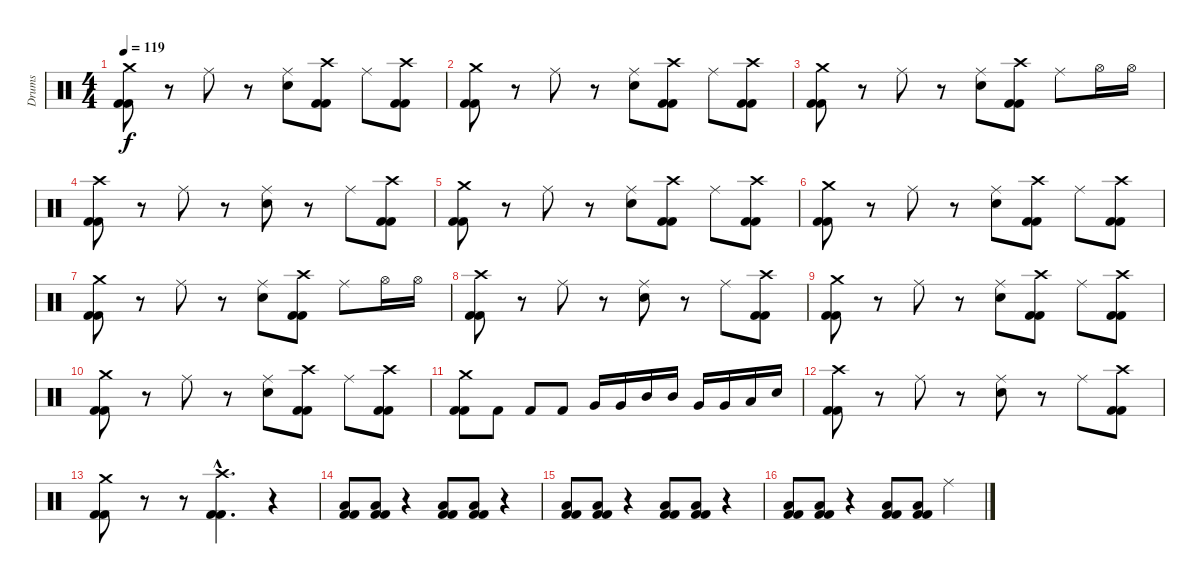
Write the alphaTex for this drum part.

\track ("Drums" "Drums") {instrument percussion}
\staff {score}
\articulation defaults
\ts (4 4)
\tempo 119
\clef neutral
\ks c
("Crash medium (hit)" "Kick (hit) 2" "Kick (hit) 2").8{dy f} r.8 "Ride (middle)".8 r.8 ("Ride (middle)" "Electric Snare (hit)").8 ("Crash high (hit)" "Kick (hit) 2" "Kick (hit) 2").8 "Ride (middle)".8 ("Crash high (hit)" "Kick (hit) 2" "Kick (hit) 2").8 |
("Crash medium (hit)" "Kick (hit) 2" "Kick (hit) 2").8 r.8 "Ride (middle)".8 r.8 ("Ride (middle)" "Electric Snare (hit)").8 ("Crash high (hit)" "Kick (hit) 2" "Kick (hit) 2").8 "Ride (middle)".8 ("Crash high (hit)" "Kick (hit) 2" "Kick (hit) 2").8 |
("Crash medium (hit)" "Kick (hit) 2" "Kick (hit) 2").8 r.8 "Ride (middle)".8 r.8 ("Ride (middle)" "Electric Snare (hit)").8 ("Crash high (hit)" "Kick (hit) 2" "Kick (hit) 2").8 "Ride (middle)".8 "Hi-Hat (open)".16 "Hi-Hat (open)".16 |
("Crash high (hit)" "Kick (hit) 2" "Kick (hit) 2").8 r.8 "Ride (middle)".8 r.8 ("Ride (middle)" "Electric Snare (hit)").8 r.8 "Ride (middle)".8 ("Crash high (hit)" "Kick (hit) 2" "Kick (hit) 2").8 |
("Crash medium (hit)" "Kick (hit) 2" "Kick (hit) 2").8 r.8 "Ride (middle)".8 r.8 ("Ride (middle)" "Electric Snare (hit)").8 ("Crash high (hit)" "Kick (hit) 2" "Kick (hit) 2").8 "Ride (middle)".8 ("Crash high (hit)" "Kick (hit) 2" "Kick (hit) 2").8 |
("Crash medium (hit)" "Kick (hit) 2" "Kick (hit) 2").8 r.8 "Ride (middle)".8 r.8 ("Ride (middle)" "Electric Snare (hit)").8 ("Crash high (hit)" "Kick (hit) 2" "Kick (hit) 2").8 "Ride (middle)".8 ("Crash high (hit)" "Kick (hit) 2" "Kick (hit) 2").8 |
("Crash medium (hit)" "Kick (hit) 2" "Kick (hit) 2").8 r.8 "Ride (middle)".8 r.8 ("Ride (middle)" "Electric Snare (hit)").8 ("Crash high (hit)" "Kick (hit) 2" "Kick (hit) 2").8 "Ride (middle)".8 "Hi-Hat (open)".16 "Hi-Hat (open)".16 |
("Crash high (hit)" "Kick (hit) 2" "Kick (hit) 2").8 r.8 "Ride (middle)".8 r.8 ("Ride (middle)" "Electric Snare (hit)").8 r.8 "Ride (middle)".8 ("Crash high (hit)" "Kick (hit) 2" "Kick (hit) 2").8 |
("Crash medium (hit)" "Kick (hit) 2" "Kick (hit) 2").8 r.8 "Ride (middle)".8 r.8 ("Ride (middle)" "Electric Snare (hit)").8 ("Crash high (hit)" "Kick (hit) 2" "Kick (hit) 2").8 "Ride (middle)".8 ("Crash high (hit)" "Kick (hit) 2" "Kick (hit) 2").8 |
("Crash medium (hit)" "Kick (hit) 2" "Kick (hit) 2").8 r.8 "Ride (middle)".8 r.8 ("Ride (middle)" "Electric Snare (hit)").8 ("Crash high (hit)" "Kick (hit) 2" "Kick (hit) 2").8 "Ride (middle)".8 ("Crash high (hit)" "Kick (hit) 2" "Kick (hit) 2").8 |
("Crash medium (hit)" "Kick (hit) 2" "Kick (hit) 2").8 "Kick (hit) 2".8 "Kick (hit) 2".8 "Kick (hit) 2".8 "Very Low Tom (hit)".16 "Very Low Tom (hit)".16 "Mid Tom (hit)".16 "Mid Tom (hit)".16 "Very Low Tom (hit)".16 "Very Low Tom (hit)".16 "Low Floor Tom (hit)".16 "Electric Snare (hit)".16 |
("Crash high (hit)" "Kick (hit) 2" "Kick (hit) 2").8 r.8 "Ride (middle)".8 r.8 ("Ride (middle)" "Electric Snare (hit)").8 r.8 "Ride (middle)".8 ("Crash high (hit)" "Kick (hit) 2" "Kick (hit) 2").8 |
("Crash medium (hit)" "Kick (hit) 2" "Kick (hit) 2").8 r.8 r.8 ("Crash high (hit)"{hac} "Kick (hit) 2"{hac} "Kick (hit) 2"{hac}).4{d} r.4 |
("Low Floor Tom (hit)" "Kick (hit) 2" "Kick (hit) 2").8 ("Low Floor Tom (hit)" "Kick (hit) 2" "Kick (hit) 2").8 r.4 ("Low Floor Tom (hit)" "Kick (hit) 2" "Kick (hit) 2").8 ("Low Floor Tom (hit)" "Kick (hit) 2" "Kick (hit) 2").8 r.4 |
("Low Floor Tom (hit)" "Kick (hit) 2" "Kick (hit) 2").8 ("Low Floor Tom (hit)" "Kick (hit) 2" "Kick (hit) 2").8 r.4 ("Low Floor Tom (hit)" "Kick (hit) 2" "Kick (hit) 2").8 ("Low Floor Tom (hit)" "Kick (hit) 2" "Kick (hit) 2").8 r.4 |
("Low Floor Tom (hit)" "Kick (hit) 2" "Kick (hit) 2").8 ("Low Floor Tom (hit)" "Kick (hit) 2" "Kick (hit) 2").8 r.4 ("Low Floor Tom (hit)" "Kick (hit) 2" "Kick (hit) 2").8 ("Low Floor Tom (hit)" "Kick (hit) 2" "Kick (hit) 2").8 "Ride (middle)".4
